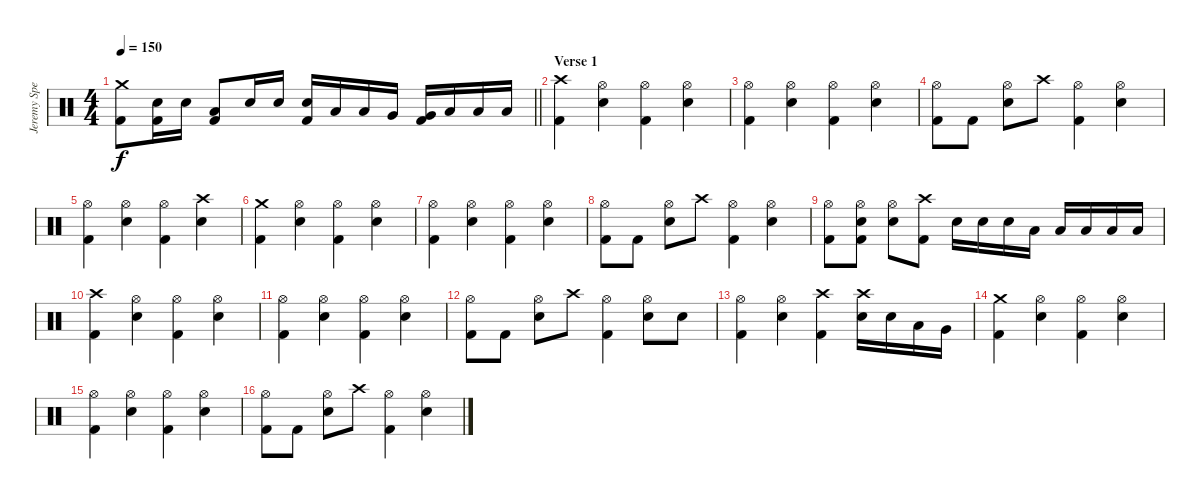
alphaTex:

\track ("Jeremy Spencer – Drums" "Jeremy Spe") {instrument percussion}
\staff {score}
\articulation defaults
\ts (4 4)
\tempo 150
\clef neutral
\barLineRight lightlight
\ks c
("Crash medium (hit)" "Kick (hit) 2").8{dy f} ("Snare (hit) 2" "Kick (hit) 2").16 "Snare (hit) 2".16 ("Low Tom (hit)" "Kick (hit) 2").8 "Snare (hit) 2".16 "Snare (hit) 2".16 ("Snare (hit) 2" "Kick (hit) 2").16 "Low Tom (hit)".16 "Low Tom (hit)".16 "Very Low Tom (hit)".16 ("Very Low Tom (hit)" "Kick (hit) 2").16 "Low Floor Tom (hit)".16 "Low Floor Tom (hit)".16 "Low Floor Tom (hit)".16 |
\section ("" "Verse 1")
("Crash high (hit)" "Kick (hit) 2").4 ("Hi-Hat (open)" "Snare (hit) 2").4 ("Hi-Hat (open)" "Kick (hit) 2").4 ("Hi-Hat (open)" "Snare (hit) 2").4 |
("Hi-Hat (open)" "Kick (hit) 2").4 ("Hi-Hat (open)" "Snare (hit) 2").4 ("Hi-Hat (open)" "Kick (hit) 2").4 ("Hi-Hat (open)" "Snare (hit) 2").4 |
("Hi-Hat (open)" "Kick (hit) 2").8 "Kick (hit) 2".8 ("Hi-Hat (open)" "Snare (hit) 2").8 "Crash high (hit)".8 ("Hi-Hat (open)" "Kick (hit) 2").4 ("Hi-Hat (open)" "Snare (hit) 2").4 |
("Hi-Hat (open)" "Kick (hit) 2").4 ("Hi-Hat (open)" "Snare (hit) 2").4 ("Hi-Hat (open)" "Kick (hit) 2").4 ("Crash high (hit)" "Snare (hit) 2").4 |
("Crash medium (hit)" "Kick (hit) 2").4 ("Hi-Hat (open)" "Snare (hit) 2").4 ("Hi-Hat (open)" "Kick (hit) 2").4 ("Hi-Hat (open)" "Snare (hit) 2").4 |
("Hi-Hat (open)" "Kick (hit) 2").4 ("Hi-Hat (open)" "Snare (hit) 2").4 ("Hi-Hat (open)" "Kick (hit) 2").4 ("Hi-Hat (open)" "Snare (hit) 2").4 |
("Hi-Hat (open)" "Kick (hit) 2").8 "Kick (hit) 2".8 ("Hi-Hat (open)" "Snare (hit) 2").8 "Crash high (hit)".8 ("Hi-Hat (open)" "Kick (hit) 2").4 ("Hi-Hat (open)" "Snare (hit) 2").4 |
("Hi-Hat (open)" "Kick (hit) 2").8 ("Hi-Hat (open)" "Snare (hit) 2" "Kick (hit) 2").8 ("Hi-Hat (open)" "Snare (hit) 2").8 ("Crash high (hit)" "Kick (hit) 2").8 "Snare (hit) 2".16 "Snare (hit) 2".16 "Snare (hit) 2".16 "Low Tom (hit)".16 "Low Tom (hit)".16 "Low Tom (hit)".16 "Low Floor Tom (hit)".16 "Low Floor Tom (hit)".16 |
("Crash high (hit)" "Kick (hit) 2").4 ("Hi-Hat (open)" "Snare (hit) 2").4 ("Hi-Hat (open)" "Kick (hit) 2").4 ("Hi-Hat (open)" "Snare (hit) 2").4 |
("Hi-Hat (open)" "Kick (hit) 2").4 ("Hi-Hat (open)" "Snare (hit) 2").4 ("Hi-Hat (open)" "Kick (hit) 2").4 ("Hi-Hat (open)" "Snare (hit) 2").4 |
("Hi-Hat (open)" "Kick (hit) 2").8 "Kick (hit) 2".8 ("Hi-Hat (open)" "Snare (hit) 2").8 "Crash high (hit)".8 ("Hi-Hat (open)" "Kick (hit) 2").4 ("Hi-Hat (open)" "Snare (hit) 2").8 "Snare (hit) 2".8 |
("Hi-Hat (open)" "Kick (hit) 2").4 ("Hi-Hat (open)" "Snare (hit) 2").4 ("Crash high (hit)" "Kick (hit) 2").4 ("Crash high (hit)" "Snare (hit) 2").16 "Snare (hit) 2".16 "Low Tom (hit)".16 "Very Low Tom (hit)".16 |
("Crash medium (hit)" "Kick (hit) 2").4 ("Hi-Hat (open)" "Snare (hit) 2").4 ("Hi-Hat (open)" "Kick (hit) 2").4 ("Hi-Hat (open)" "Snare (hit) 2").4 |
("Hi-Hat (open)" "Kick (hit) 2").4 ("Hi-Hat (open)" "Snare (hit) 2").4 ("Hi-Hat (open)" "Kick (hit) 2").4 ("Hi-Hat (open)" "Snare (hit) 2").4 |
("Hi-Hat (open)" "Kick (hit) 2").8 "Kick (hit) 2".8 ("Hi-Hat (open)" "Snare (hit) 2").8 "Crash high (hit)".8 ("Hi-Hat (open)" "Kick (hit) 2").4 ("Hi-Hat (open)" "Snare (hit) 2").4
